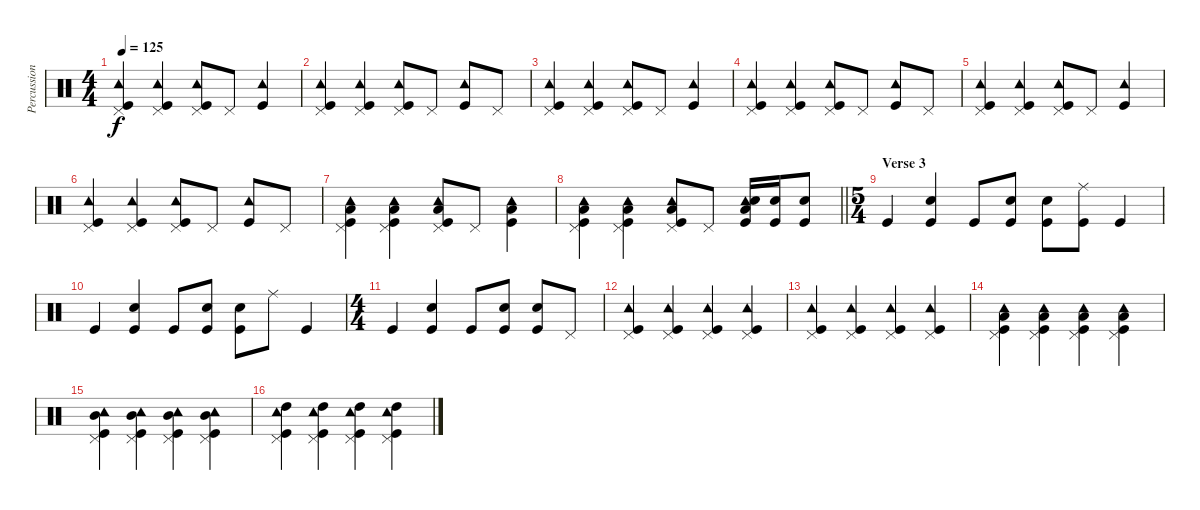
\track ("Percussions" "Percussion") {instrument percussion}
\staff {score}
\articulation defaults
\ts (4 4)
\tempo 125
\clef neutral
\ks c
("Tambourine (hit)" "Pedal Hi-Hat (hit)" "Kick (hit)").4{dy f} ("Tambourine (hit)" "Pedal Hi-Hat (hit)" "Kick (hit)").4 ("Tambourine (hit)" "Pedal Hi-Hat (hit)" "Kick (hit)").8 "Pedal Hi-Hat (hit)".8 ("Tambourine (hit)" "Kick (hit)").4 |
("Tambourine (hit)" "Pedal Hi-Hat (hit)" "Kick (hit)").4 ("Tambourine (hit)" "Pedal Hi-Hat (hit)" "Kick (hit)").4 ("Tambourine (hit)" "Pedal Hi-Hat (hit)" "Kick (hit)").8 "Pedal Hi-Hat (hit)".8 ("Tambourine (hit)" "Kick (hit)").8 "Pedal Hi-Hat (hit)".8 |
("Tambourine (hit)" "Pedal Hi-Hat (hit)" "Kick (hit)").4 ("Tambourine (hit)" "Pedal Hi-Hat (hit)" "Kick (hit)").4 ("Tambourine (hit)" "Pedal Hi-Hat (hit)" "Kick (hit)").8 "Pedal Hi-Hat (hit)".8 ("Tambourine (hit)" "Kick (hit)").4 |
("Tambourine (hit)" "Pedal Hi-Hat (hit)" "Kick (hit)").4 ("Tambourine (hit)" "Pedal Hi-Hat (hit)" "Kick (hit)").4 ("Tambourine (hit)" "Pedal Hi-Hat (hit)" "Kick (hit)").8 "Pedal Hi-Hat (hit)".8 ("Tambourine (hit)" "Kick (hit)").8 "Pedal Hi-Hat (hit)".8 |
("Tambourine (hit)" "Pedal Hi-Hat (hit)" "Kick (hit)").4 ("Tambourine (hit)" "Pedal Hi-Hat (hit)" "Kick (hit)").4 ("Tambourine (hit)" "Pedal Hi-Hat (hit)" "Kick (hit)").8 "Pedal Hi-Hat (hit)".8 ("Tambourine (hit)" "Kick (hit)").4 |
("Tambourine (hit)" "Pedal Hi-Hat (hit)" "Kick (hit)").4 ("Tambourine (hit)" "Pedal Hi-Hat (hit)" "Kick (hit)").4 ("Tambourine (hit)" "Pedal Hi-Hat (hit)" "Kick (hit)").8 "Pedal Hi-Hat (hit)".8 ("Tambourine (hit)" "Kick (hit)").8 "Pedal Hi-Hat (hit)".8 |
("Tambourine (hit)" "Pedal Hi-Hat (hit)" "Low Tom (hit)" "Kick (hit)").4 ("Tambourine (hit)" "Pedal Hi-Hat (hit)" "Low Tom (hit)" "Kick (hit)").4 ("Tambourine (hit)" "Pedal Hi-Hat (hit)" "Low Tom (hit)" "Kick (hit)").8 "Pedal Hi-Hat (hit)".8 ("Tambourine (hit)" "Low Tom (hit)" "Kick (hit)").4 |
\barLineRight lightlight
("Tambourine (hit)" "Pedal Hi-Hat (hit)" "Low Floor Tom (hit)" "Kick (hit)").4 ("Tambourine (hit)" "Pedal Hi-Hat (hit)" "Low Floor Tom (hit)" "Kick (hit)").4 ("Tambourine (hit)" "Pedal Hi-Hat (hit)" "Low Floor Tom (hit)" "Kick (hit)").8 "Pedal Hi-Hat (hit)".8 ("Tambourine (hit)" "Low Floor Tom (hit)" "Snare (hit) 2" "Kick (hit)").16 ("Snare (hit) 2" "Kick (hit)").16 ("Snare (hit) 2" "Kick (hit)").8 |
\ts (5 4)
\section ("" "Verse 3")
"Kick (hit)".4 ("Snare (hit) 2" "Kick (hit)").4 "Kick (hit)".8 ("Snare (hit) 2" "Kick (hit)").8 ("Snare (hit) 2" "Kick (hit)").8 ("Ride (middle)" "Kick (hit)").8 "Kick (hit)".4 |
"Kick (hit)".4 ("Snare (hit) 2" "Kick (hit)").4 "Kick (hit)".8 ("Snare (hit) 2" "Kick (hit)").8 ("Snare (hit) 2" "Kick (hit)").8 "Ride (middle)".8 "Kick (hit)".4 |
\ts (4 4)
"Kick (hit)".4 ("Snare (hit) 2" "Kick (hit)").4 "Kick (hit)".8 ("Snare (hit) 2" "Kick (hit)").8 ("Snare (hit) 2" "Kick (hit)").8 "Pedal Hi-Hat (hit)".8 |
("Tambourine (hit)" "Pedal Hi-Hat (hit)" "Kick (hit)").4 ("Tambourine (hit)" "Pedal Hi-Hat (hit)" "Kick (hit)").4 ("Tambourine (hit)" "Pedal Hi-Hat (hit)" "Kick (hit)").4 ("Tambourine (hit)" "Pedal Hi-Hat (hit)" "Kick (hit)").4 |
("Tambourine (hit)" "Pedal Hi-Hat (hit)" "Kick (hit)").4 ("Tambourine (hit)" "Pedal Hi-Hat (hit)" "Kick (hit)").4 ("Tambourine (hit)" "Pedal Hi-Hat (hit)" "Kick (hit)").4 ("Tambourine (hit)" "Pedal Hi-Hat (hit)" "Kick (hit)").4 |
("Tambourine (hit)" "Pedal Hi-Hat (hit)" "Low Tom (hit)" "Kick (hit)").4 ("Tambourine (hit)" "Pedal Hi-Hat (hit)" "Low Tom (hit)" "Kick (hit)").4 ("Tambourine (hit)" "Pedal Hi-Hat (hit)" "Low Tom (hit)" "Kick (hit)").4 ("Tambourine (hit)" "Pedal Hi-Hat (hit)" "Low Tom (hit)" "Kick (hit)").4 |
("Tambourine (hit)" "Pedal Hi-Hat (hit)" "Mid Tom (hit)" "Kick (hit)").4 ("Tambourine (hit)" "Pedal Hi-Hat (hit)" "Mid Tom (hit)" "Kick (hit)").4 ("Tambourine (hit)" "Pedal Hi-Hat (hit)" "Mid Tom (hit)" "Kick (hit)").4 ("Tambourine (hit)" "Pedal Hi-Hat (hit)" "Mid Tom (hit)" "Kick (hit)").4 |
("Tambourine (hit)" "Pedal Hi-Hat (hit)" "High Tom (hit)" "Kick (hit)").4 ("Tambourine (hit)" "Pedal Hi-Hat (hit)" "High Tom (hit)" "Kick (hit)").4 ("Tambourine (hit)" "Pedal Hi-Hat (hit)" "High Tom (hit)" "Kick (hit)").4 ("Tambourine (hit)" "Pedal Hi-Hat (hit)" "High Tom (hit)" "Kick (hit)").4
